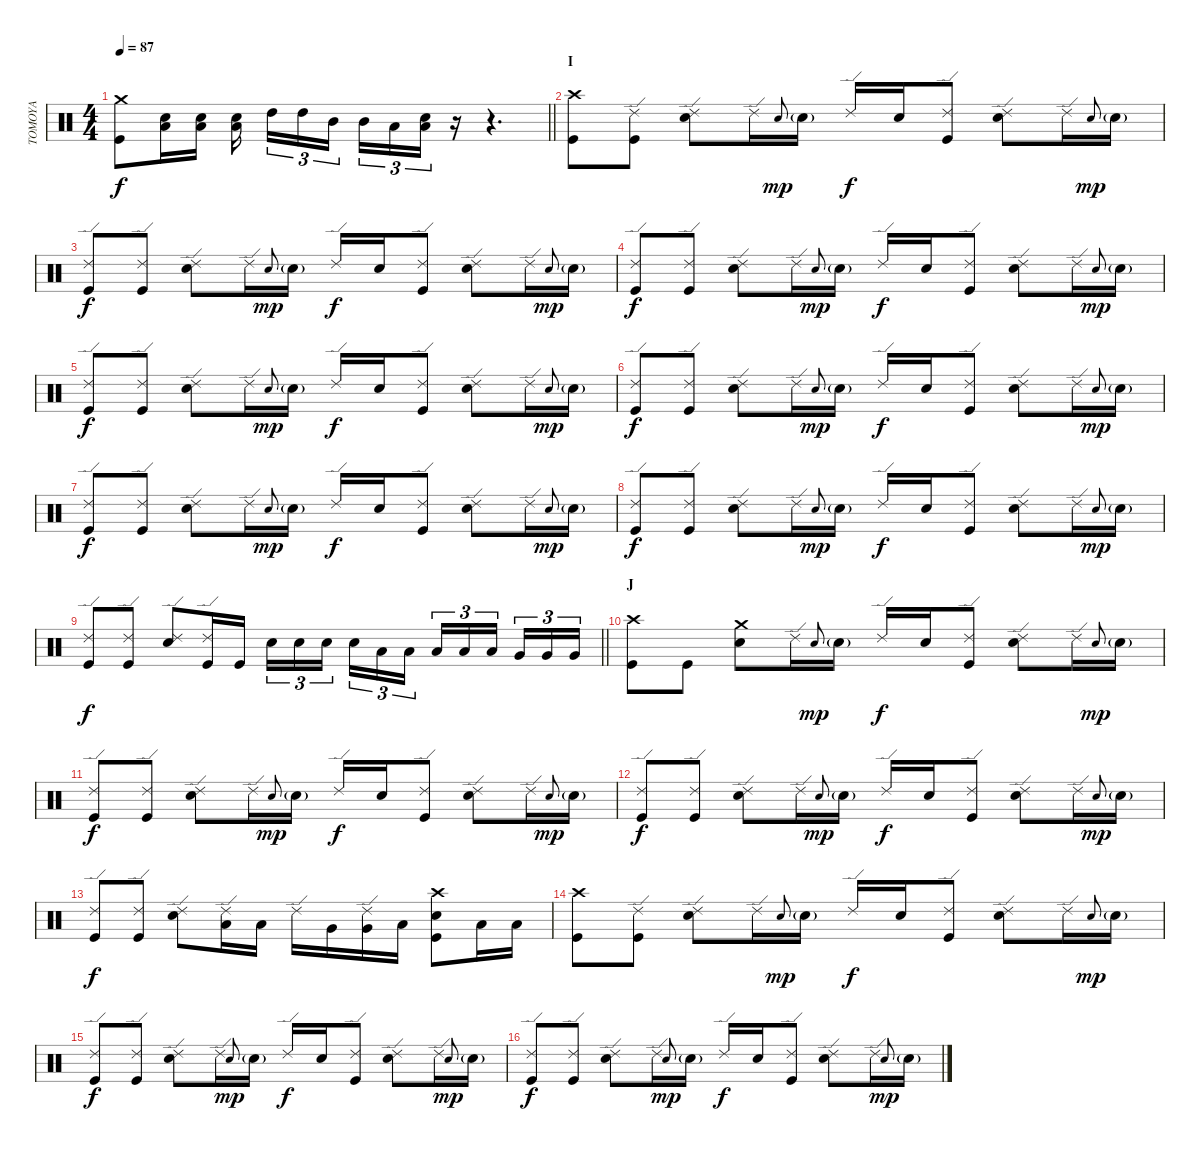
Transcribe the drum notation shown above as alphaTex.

\track ("TOMOYA" "TOMOYA") {instrument percussion}
\staff {score}
\articulation defaults
\ts (4 4)
\tempo 87
\clef neutral
\barLineRight lightlight
\ks c
("Kick (hit)" "Crash medium (hit)").8{dy f} ("Low Floor Tom (hit)" "Snare (hit) 2").16 ("Low Floor Tom (hit)" "Snare (hit) 2").16 ("Low Floor Tom (hit)" "Snare (hit) 2").16{beam splitsecondary} "High Tom (hit)".16{tu (3 2)} "High Tom (hit)".16{tu (3 2)} "Mid Tom (hit)".16{tu (3 2) beam splitsecondary} "Mid Tom (hit)".16{tu (3 2)} "Low Tom (hit)".16{tu (3 2)} ("Low Floor Tom (hit)" "Snare (hit) 2").16{tu (3 2)} r.16 r.4{d} |
\section ("" "I")
("Kick (hit)" "Crash high (hit)").8 ("Kick (hit)" "Ride (edge) 2").8 ("Snare (hit) 2" "Ride (edge) 2").8 "Ride (edge) 2".16 "Snare (hit) 2".8{gr onbeat dy mp} "Snare (hit) 2"{g}.16 "Ride (edge) 2".16{dy f} "Snare (hit) 2".16 ("Kick (hit)" "Ride (edge) 2").8 ("Snare (hit) 2" "Ride (edge) 2").8 "Ride (edge) 2".16 "Snare (hit) 2".8{gr onbeat dy mp} "Snare (hit) 2"{g}.16 |
("Kick (hit)" "Ride (edge) 2").8{dy f} ("Kick (hit)" "Ride (edge) 2").8 ("Snare (hit) 2" "Ride (edge) 2").8 "Ride (edge) 2".16 "Snare (hit) 2".8{gr onbeat dy mp} "Snare (hit) 2"{g}.16 "Ride (edge) 2".16{dy f} "Snare (hit) 2".16 ("Kick (hit)" "Ride (edge) 2").8 ("Snare (hit) 2" "Ride (edge) 2").8 "Ride (edge) 2".16 "Snare (hit) 2".8{gr onbeat dy mp} "Snare (hit) 2"{g}.16 |
("Kick (hit)" "Ride (edge) 2").8{dy f} ("Kick (hit)" "Ride (edge) 2").8 ("Snare (hit) 2" "Ride (edge) 2").8 "Ride (edge) 2".16 "Snare (hit) 2".8{gr onbeat dy mp} "Snare (hit) 2"{g}.16 "Ride (edge) 2".16{dy f} "Snare (hit) 2".16 ("Kick (hit)" "Ride (edge) 2").8 ("Snare (hit) 2" "Ride (edge) 2").8 "Ride (edge) 2".16 "Snare (hit) 2".8{gr onbeat dy mp} "Snare (hit) 2"{g}.16 |
("Kick (hit)" "Ride (edge) 2").8{dy f} ("Kick (hit)" "Ride (edge) 2").8 ("Snare (hit) 2" "Ride (edge) 2").8 "Ride (edge) 2".16 "Snare (hit) 2".8{gr onbeat dy mp} "Snare (hit) 2"{g}.16 "Ride (edge) 2".16{dy f} "Snare (hit) 2".16 ("Kick (hit)" "Ride (edge) 2").8 ("Snare (hit) 2" "Ride (edge) 2").8 "Ride (edge) 2".16 "Snare (hit) 2".8{gr onbeat dy mp} "Snare (hit) 2"{g}.16 |
("Kick (hit)" "Ride (edge) 2").8{dy f} ("Kick (hit)" "Ride (edge) 2").8 ("Snare (hit) 2" "Ride (edge) 2").8 "Ride (edge) 2".16 "Snare (hit) 2".8{gr onbeat dy mp} "Snare (hit) 2"{g}.16 "Ride (edge) 2".16{dy f} "Snare (hit) 2".16 ("Kick (hit)" "Ride (edge) 2").8 ("Snare (hit) 2" "Ride (edge) 2").8 "Ride (edge) 2".16 "Snare (hit) 2".8{gr onbeat dy mp} "Snare (hit) 2"{g}.16 |
("Kick (hit)" "Ride (edge) 2").8{dy f} ("Kick (hit)" "Ride (edge) 2").8 ("Snare (hit) 2" "Ride (edge) 2").8 "Ride (edge) 2".16 "Snare (hit) 2".8{gr onbeat dy mp} "Snare (hit) 2"{g}.16 "Ride (edge) 2".16{dy f} "Snare (hit) 2".16 ("Kick (hit)" "Ride (edge) 2").8 ("Snare (hit) 2" "Ride (edge) 2").8 "Ride (edge) 2".16 "Snare (hit) 2".8{gr onbeat dy mp} "Snare (hit) 2"{g}.16 |
("Kick (hit)" "Ride (edge) 2").8{dy f} ("Kick (hit)" "Ride (edge) 2").8 ("Snare (hit) 2" "Ride (edge) 2").8 "Ride (edge) 2".16 "Snare (hit) 2".8{gr onbeat dy mp} "Snare (hit) 2"{g}.16 "Ride (edge) 2".16{dy f} "Snare (hit) 2".16 ("Kick (hit)" "Ride (edge) 2").8 ("Snare (hit) 2" "Ride (edge) 2").8 "Ride (edge) 2".16 "Snare (hit) 2".8{gr onbeat dy mp} "Snare (hit) 2"{g}.16 |
\barLineRight lightlight
("Kick (hit)" "Ride (edge) 2").8{dy f} ("Kick (hit)" "Ride (edge) 2").8 ("Snare (hit) 2" "Ride (edge) 2").8 ("Kick (hit)" "Ride (edge) 2").16 "Kick (hit)".16 "Snare (hit) 2".16{tu (3 2)} "Snare (hit) 2".16{tu (3 2)} "Snare (hit) 2".16{tu (3 2) beam splitsecondary} "Snare (hit) 2".16{tu (3 2)} "Low Tom (hit)".16{tu (3 2)} "Low Tom (hit)".16{tu (3 2)} "Low Tom (hit)".16{tu (3 2)} "Low Tom (hit)".16{tu (3 2)} "Low Tom (hit)".16{tu (3 2) beam splitsecondary} "Very Low Tom (hit)".16{tu (3 2)} "Very Low Tom (hit)".16{tu (3 2)} "Very Low Tom (hit)".16{tu (3 2)} |
\section ("" "J")
("Kick (hit)" "Crash high (hit)").8 "Kick (hit)".8 ("Snare (hit) 2" "Crash medium (hit)").8 "Ride (edge) 2".16 "Snare (hit) 2".8{gr onbeat dy mp} "Snare (hit) 2"{g}.16 "Ride (edge) 2".16{dy f} "Snare (hit) 2".16 ("Kick (hit)" "Ride (edge) 2").8 ("Snare (hit) 2" "Ride (edge) 2").8 "Ride (edge) 2".16 "Snare (hit) 2".8{gr onbeat dy mp} "Snare (hit) 2"{g}.16 |
("Kick (hit)" "Ride (edge) 2").8{dy f} ("Kick (hit)" "Ride (edge) 2").8 ("Snare (hit) 2" "Ride (edge) 2").8 "Ride (edge) 2".16 "Snare (hit) 2".8{gr onbeat dy mp} "Snare (hit) 2"{g}.16 "Ride (edge) 2".16{dy f} "Snare (hit) 2".16 ("Kick (hit)" "Ride (edge) 2").8 ("Snare (hit) 2" "Ride (edge) 2").8 "Ride (edge) 2".16 "Snare (hit) 2".8{gr onbeat dy mp} "Snare (hit) 2"{g}.16 |
("Kick (hit)" "Ride (edge) 2").8{dy f} ("Kick (hit)" "Ride (edge) 2").8 ("Snare (hit) 2" "Ride (edge) 2").8 "Ride (edge) 2".16 "Snare (hit) 2".8{gr onbeat dy mp} "Snare (hit) 2"{g}.16 "Ride (edge) 2".16{dy f} "Snare (hit) 2".16 ("Kick (hit)" "Ride (edge) 2").8 ("Snare (hit) 2" "Ride (edge) 2").8 "Ride (edge) 2".16 "Snare (hit) 2".8{gr onbeat dy mp} "Snare (hit) 2"{g}.16 |
("Kick (hit)" "Ride (edge) 2").8{dy f} ("Kick (hit)" "Ride (edge) 2").8 ("Ride (edge) 2" "Snare (hit) 2").8 ("Low Tom (hit)" "Ride (edge) 2").16 "Low Tom (hit)".16 "Ride (edge) 2".16 "Very Low Tom (hit)".16 ("Very Low Tom (hit)" "Ride (edge) 2").16 "Low Floor Tom (hit)".16 ("Kick (hit)" "Snare (hit) 2" "Crash high (hit)").8 "Low Floor Tom (hit)".16 "Low Floor Tom (hit)".16 |
("Kick (hit)" "Crash high (hit)").8 ("Kick (hit)" "Ride (edge) 2").8 ("Snare (hit) 2" "Ride (edge) 2").8 "Ride (edge) 2".16 "Snare (hit) 2".8{gr onbeat dy mp} "Snare (hit) 2"{g}.16 "Ride (edge) 2".16{dy f} "Snare (hit) 2".16 ("Kick (hit)" "Ride (edge) 2").8 ("Snare (hit) 2" "Ride (edge) 2").8 "Ride (edge) 2".16 "Snare (hit) 2".8{gr onbeat dy mp} "Snare (hit) 2"{g}.16 |
("Kick (hit)" "Ride (edge) 2").8{dy f} ("Kick (hit)" "Ride (edge) 2").8 ("Snare (hit) 2" "Ride (edge) 2").8 "Ride (edge) 2".16 "Snare (hit) 2".8{gr onbeat dy mp} "Snare (hit) 2"{g}.16 "Ride (edge) 2".16{dy f} "Snare (hit) 2".16 ("Kick (hit)" "Ride (edge) 2").8 ("Snare (hit) 2" "Ride (edge) 2").8 "Ride (edge) 2".16 "Snare (hit) 2".8{gr onbeat dy mp} "Snare (hit) 2"{g}.16 |
("Kick (hit)" "Ride (edge) 2").8{dy f} ("Kick (hit)" "Ride (edge) 2").8 ("Snare (hit) 2" "Ride (edge) 2").8 "Ride (edge) 2".16 "Snare (hit) 2".8{gr onbeat dy mp} "Snare (hit) 2"{g}.16 "Ride (edge) 2".16{dy f} "Snare (hit) 2".16 ("Kick (hit)" "Ride (edge) 2").8 ("Snare (hit) 2" "Ride (edge) 2").8 "Ride (edge) 2".16 "Snare (hit) 2".8{gr onbeat dy mp} "Snare (hit) 2"{g}.16
